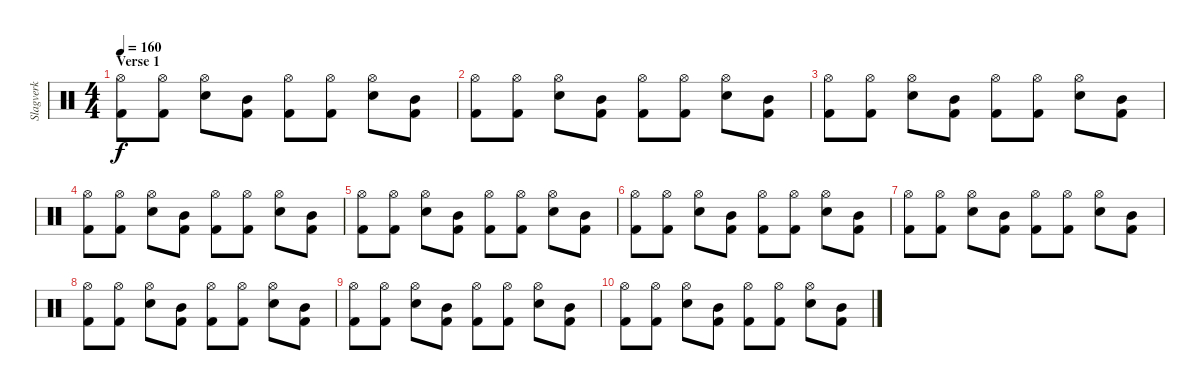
\track ("Slagverk" "Slagverk") {instrument percussion}
\staff {score}
\articulation defaults
\ts (4 4)
\section ("" "Verse 1")
\tempo 160
\clef neutral
\ks c
("Hi-Hat (open)" "Kick (hit) 2").8{dy f} ("Hi-Hat (open)" "Kick (hit) 2").8 ("Hi-Hat (open)" "Electric Snare (hit)").8 ("Mid Tom (hit)" "Kick (hit) 2").8 ("Hi-Hat (open)" "Kick (hit) 2").8 ("Hi-Hat (open)" "Kick (hit) 2").8 ("Hi-Hat (open)" "Electric Snare (hit)").8 ("Mid Tom (hit)" "Kick (hit) 2").8 |
("Hi-Hat (open)" "Kick (hit) 2").8 ("Hi-Hat (open)" "Kick (hit) 2").8 ("Hi-Hat (open)" "Electric Snare (hit)").8 ("Mid Tom (hit)" "Kick (hit) 2").8 ("Hi-Hat (open)" "Kick (hit) 2").8 ("Hi-Hat (open)" "Kick (hit) 2").8 ("Hi-Hat (open)" "Electric Snare (hit)").8 ("Mid Tom (hit)" "Kick (hit) 2").8 |
("Hi-Hat (open)" "Kick (hit) 2").8 ("Hi-Hat (open)" "Kick (hit) 2").8 ("Hi-Hat (open)" "Electric Snare (hit)").8 ("Mid Tom (hit)" "Kick (hit) 2").8 ("Hi-Hat (open)" "Kick (hit) 2").8 ("Hi-Hat (open)" "Kick (hit) 2").8 ("Hi-Hat (open)" "Electric Snare (hit)").8 ("Mid Tom (hit)" "Kick (hit) 2").8 |
("Hi-Hat (open)" "Kick (hit) 2").8 ("Hi-Hat (open)" "Kick (hit) 2").8 ("Hi-Hat (open)" "Electric Snare (hit)").8 ("Mid Tom (hit)" "Kick (hit) 2").8 ("Hi-Hat (open)" "Kick (hit) 2").8 ("Hi-Hat (open)" "Kick (hit) 2").8 ("Hi-Hat (open)" "Electric Snare (hit)").8 ("Mid Tom (hit)" "Kick (hit) 2").8 |
("Hi-Hat (open)" "Kick (hit) 2").8 ("Hi-Hat (open)" "Kick (hit) 2").8 ("Hi-Hat (open)" "Electric Snare (hit)").8 ("Mid Tom (hit)" "Kick (hit) 2").8 ("Hi-Hat (open)" "Kick (hit) 2").8 ("Hi-Hat (open)" "Kick (hit) 2").8 ("Hi-Hat (open)" "Electric Snare (hit)").8 ("Mid Tom (hit)" "Kick (hit) 2").8 |
("Hi-Hat (open)" "Kick (hit) 2").8 ("Hi-Hat (open)" "Kick (hit) 2").8 ("Hi-Hat (open)" "Electric Snare (hit)").8 ("Mid Tom (hit)" "Kick (hit) 2").8 ("Hi-Hat (open)" "Kick (hit) 2").8 ("Hi-Hat (open)" "Kick (hit) 2").8 ("Hi-Hat (open)" "Electric Snare (hit)").8 ("Mid Tom (hit)" "Kick (hit) 2").8 |
("Hi-Hat (open)" "Kick (hit) 2").8 ("Hi-Hat (open)" "Kick (hit) 2").8 ("Hi-Hat (open)" "Electric Snare (hit)").8 ("Mid Tom (hit)" "Kick (hit) 2").8 ("Hi-Hat (open)" "Kick (hit) 2").8 ("Hi-Hat (open)" "Kick (hit) 2").8 ("Hi-Hat (open)" "Electric Snare (hit)").8 ("Mid Tom (hit)" "Kick (hit) 2").8 |
("Hi-Hat (open)" "Kick (hit) 2").8 ("Hi-Hat (open)" "Kick (hit) 2").8 ("Hi-Hat (open)" "Electric Snare (hit)").8 ("Mid Tom (hit)" "Kick (hit) 2").8 ("Hi-Hat (open)" "Kick (hit) 2").8 ("Hi-Hat (open)" "Kick (hit) 2").8 ("Hi-Hat (open)" "Electric Snare (hit)").8 ("Mid Tom (hit)" "Kick (hit) 2").8 |
("Hi-Hat (open)" "Kick (hit) 2").8 ("Hi-Hat (open)" "Kick (hit) 2").8 ("Hi-Hat (open)" "Electric Snare (hit)").8 ("Mid Tom (hit)" "Kick (hit) 2").8 ("Hi-Hat (open)" "Kick (hit) 2").8 ("Hi-Hat (open)" "Kick (hit) 2").8 ("Hi-Hat (open)" "Electric Snare (hit)").8 ("Mid Tom (hit)" "Kick (hit) 2").8 |
("Hi-Hat (open)" "Kick (hit) 2").8 ("Hi-Hat (open)" "Kick (hit) 2").8 ("Hi-Hat (open)" "Electric Snare (hit)").8 ("Mid Tom (hit)" "Kick (hit) 2").8 ("Hi-Hat (open)" "Kick (hit) 2").8 ("Hi-Hat (open)" "Kick (hit) 2").8 ("Hi-Hat (open)" "Electric Snare (hit)").8 ("Mid Tom (hit)" "Kick (hit) 2").8
